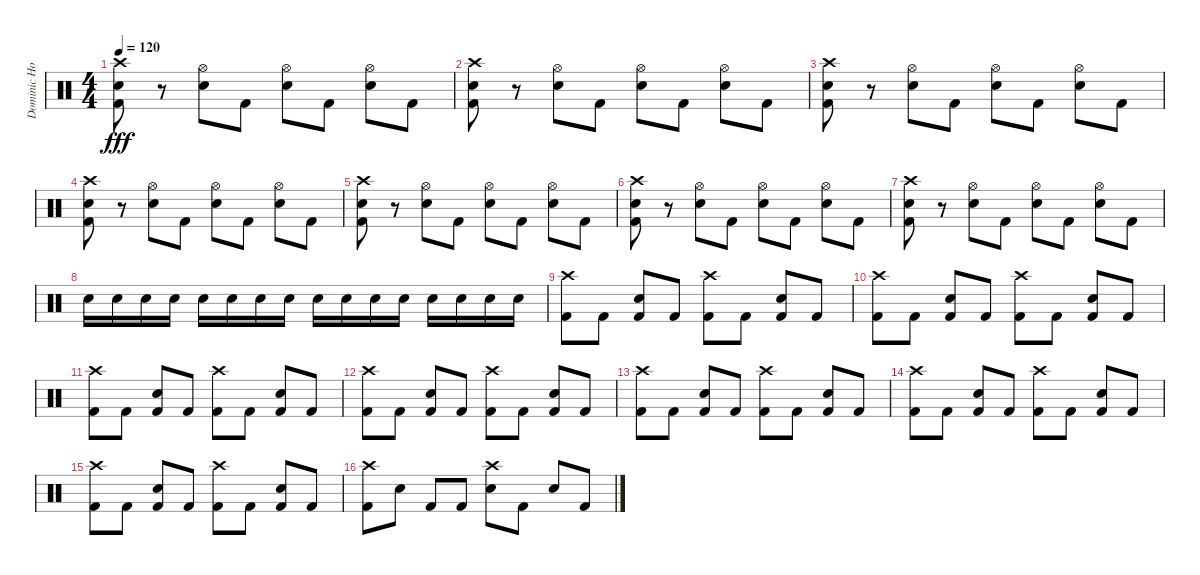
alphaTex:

\track ("Dominic Howard" "Dominic Ho") {instrument percussion}
\staff {score}
\articulation defaults
\ts (4 4)
\tempo 120
\clef neutral
\ks c
("Crash high (hit)" "Snare (hit) 2" "Kick (hit) 2").8{dy fff} r.8 ("Hi-Hat (open)" "Snare (hit) 2").8 "Kick (hit) 2".8 ("Hi-Hat (open)" "Snare (hit) 2").8 "Kick (hit) 2".8 ("Hi-Hat (open)" "Snare (hit) 2").8 "Kick (hit) 2".8 |
("Crash high (hit)" "Snare (hit) 2" "Kick (hit) 2").8 r.8 ("Hi-Hat (open)" "Snare (hit) 2").8 "Kick (hit) 2".8 ("Hi-Hat (open)" "Snare (hit) 2").8 "Kick (hit) 2".8 ("Hi-Hat (open)" "Snare (hit) 2").8 "Kick (hit) 2".8 |
("Crash high (hit)" "Snare (hit) 2" "Kick (hit) 2").8 r.8 ("Hi-Hat (open)" "Snare (hit) 2").8 "Kick (hit) 2".8 ("Hi-Hat (open)" "Snare (hit) 2").8 "Kick (hit) 2".8 ("Hi-Hat (open)" "Snare (hit) 2").8 "Kick (hit) 2".8 |
("Crash high (hit)" "Snare (hit) 2" "Kick (hit) 2").8 r.8 ("Hi-Hat (open)" "Snare (hit) 2").8 "Kick (hit) 2".8 ("Hi-Hat (open)" "Snare (hit) 2").8 "Kick (hit) 2".8 ("Hi-Hat (open)" "Snare (hit) 2").8 "Kick (hit) 2".8 |
("Crash high (hit)" "Snare (hit) 2" "Kick (hit) 2").8 r.8 ("Hi-Hat (open)" "Snare (hit) 2").8 "Kick (hit) 2".8 ("Hi-Hat (open)" "Snare (hit) 2").8 "Kick (hit) 2".8 ("Hi-Hat (open)" "Snare (hit) 2").8 "Kick (hit) 2".8 |
("Crash high (hit)" "Snare (hit) 2" "Kick (hit) 2").8 r.8 ("Hi-Hat (open)" "Snare (hit) 2").8 "Kick (hit) 2".8 ("Hi-Hat (open)" "Snare (hit) 2").8 "Kick (hit) 2".8 ("Hi-Hat (open)" "Snare (hit) 2").8 "Kick (hit) 2".8 |
("Crash high (hit)" "Snare (hit) 2" "Kick (hit) 2").8 r.8 ("Hi-Hat (open)" "Snare (hit) 2").8 "Kick (hit) 2".8 ("Hi-Hat (open)" "Snare (hit) 2").8 "Kick (hit) 2".8 ("Hi-Hat (open)" "Snare (hit) 2").8 "Kick (hit) 2".8 |
"Snare (hit) 2".16 "Snare (hit) 2".16 "Snare (hit) 2".16 "Snare (hit) 2".16 "Snare (hit) 2".16 "Snare (hit) 2".16 "Snare (hit) 2".16 "Snare (hit) 2".16 "Snare (hit) 2".16 "Snare (hit) 2".16 "Snare (hit) 2".16 "Snare (hit) 2".16 "Snare (hit) 2".16 "Snare (hit) 2".16 "Snare (hit) 2".16 "Snare (hit) 2".16 |
("Crash high (hit)" "Kick (hit) 2").8 "Kick (hit) 2".8 ("Snare (hit) 2" "Kick (hit) 2").8 "Kick (hit) 2".8 ("Crash high (hit)" "Kick (hit) 2").8 "Kick (hit) 2".8 ("Snare (hit) 2" "Kick (hit) 2").8 "Kick (hit) 2".8 |
("Crash high (hit)" "Kick (hit) 2").8 "Kick (hit) 2".8 ("Snare (hit) 2" "Kick (hit) 2").8 "Kick (hit) 2".8 ("Crash high (hit)" "Kick (hit) 2").8 "Kick (hit) 2".8 ("Snare (hit) 2" "Kick (hit) 2").8 "Kick (hit) 2".8 |
("Crash high (hit)" "Kick (hit) 2").8 "Kick (hit) 2".8 ("Snare (hit) 2" "Kick (hit) 2").8 "Kick (hit) 2".8 ("Crash high (hit)" "Kick (hit) 2").8 "Kick (hit) 2".8 ("Snare (hit) 2" "Kick (hit) 2").8 "Kick (hit) 2".8 |
("Crash high (hit)" "Kick (hit) 2").8 "Kick (hit) 2".8 ("Snare (hit) 2" "Kick (hit) 2").8 "Kick (hit) 2".8 ("Crash high (hit)" "Kick (hit) 2").8 "Kick (hit) 2".8 ("Snare (hit) 2" "Kick (hit) 2").8 "Kick (hit) 2".8 |
("Crash high (hit)" "Kick (hit) 2").8 "Kick (hit) 2".8 ("Snare (hit) 2" "Kick (hit) 2").8 "Kick (hit) 2".8 ("Crash high (hit)" "Kick (hit) 2").8 "Kick (hit) 2".8 ("Snare (hit) 2" "Kick (hit) 2").8 "Kick (hit) 2".8 |
("Crash high (hit)" "Kick (hit) 2").8 "Kick (hit) 2".8 ("Snare (hit) 2" "Kick (hit) 2").8 "Kick (hit) 2".8 ("Crash high (hit)" "Kick (hit) 2").8 "Kick (hit) 2".8 ("Snare (hit) 2" "Kick (hit) 2").8 "Kick (hit) 2".8 |
("Crash high (hit)" "Kick (hit) 2").8 "Kick (hit) 2".8 ("Snare (hit) 2" "Kick (hit) 2").8 "Kick (hit) 2".8 ("Crash high (hit)" "Kick (hit) 2").8 "Kick (hit) 2".8 ("Snare (hit) 2" "Kick (hit) 2").8 "Kick (hit) 2".8 |
("Crash high (hit)" "Kick (hit) 2").8 "Snare (hit) 2".8 "Kick (hit) 2".8 "Kick (hit) 2".8 ("Crash high (hit)" "Snare (hit) 2").8 "Kick (hit) 2".8 "Snare (hit) 2".8 "Kick (hit) 2".8
